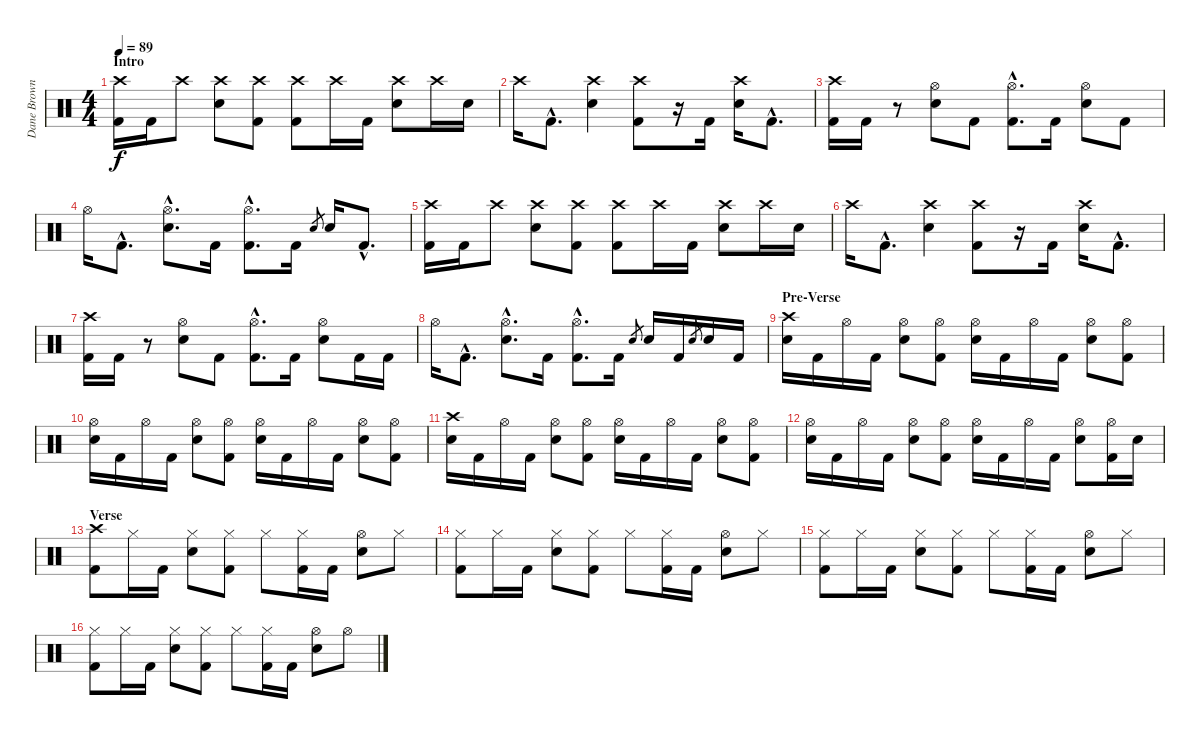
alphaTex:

\track ("Dane Brown (drums)" "Dane Brown") {instrument percussion}
\staff {score}
\articulation defaults
\ts (4 4)
\section ("" "Intro")
\tempo 89
\clef neutral
\ks c
("Crash high (hit)" "Kick (hit) 2").16{dy f} "Kick (hit) 2".16 "Crash high (hit)".8 ("Crash high (hit)" "Electric Snare (hit)").8 ("Crash high (hit)" "Kick (hit) 2").8 ("Crash high (hit)" "Kick (hit) 2").8 "Crash high (hit)".16 "Kick (hit) 2".16 ("Crash high (hit)" "Electric Snare (hit)").8 "Crash high (hit)".16 "Electric Snare (hit)".16 |
"Crash high (hit)".16 "Kick (hit) 2"{hac}.8{d} ("Crash high (hit)" "Electric Snare (hit)").4 ("Crash high (hit)" "Kick (hit) 2").8 r.16 "Kick (hit) 2".16 ("Crash high (hit)" "Electric Snare (hit)").16 "Kick (hit) 2"{hac}.8{d} |
("Crash high (hit)" "Kick (hit) 2").16 "Kick (hit) 2".16 r.8 ("Hi-Hat (open)" "Electric Snare (hit)").8 "Kick (hit) 2".8 ("Hi-Hat (open)"{hac} "Kick (hit) 2"{hac}).8{d} "Kick (hit) 2".16 ("Hi-Hat (open)" "Electric Snare (hit)").8 "Kick (hit) 2".8 |
"Hi-Hat (open)".16 "Kick (hit) 2"{hac}.8{d} ("Hi-Hat (open)"{hac} "Electric Snare (hit)"{hac}).8{d} "Kick (hit) 2".16 ("Hi-Hat (open)"{hac} "Kick (hit) 2"{hac}).8{d} "Kick (hit) 2".16 "Electric Snare (hit)".8{gr} "Electric Snare (hit)".16 "Kick (hit) 2"{hac}.8{d} |
("Crash high (hit)" "Kick (hit) 2").16 "Kick (hit) 2".16 "Crash high (hit)".8 ("Crash high (hit)" "Electric Snare (hit)").8 ("Crash high (hit)" "Kick (hit) 2").8 ("Crash high (hit)" "Kick (hit) 2").8 "Crash high (hit)".16 "Kick (hit) 2".16 ("Crash high (hit)" "Electric Snare (hit)").8 "Crash high (hit)".16 "Electric Snare (hit)".16 |
"Crash high (hit)".16 "Kick (hit) 2"{hac}.8{d} ("Crash high (hit)" "Electric Snare (hit)").4 ("Crash high (hit)" "Kick (hit) 2").8 r.16 "Kick (hit) 2".16 ("Crash high (hit)" "Electric Snare (hit)").16 "Kick (hit) 2"{hac}.8{d} |
("Crash high (hit)" "Kick (hit) 2").16 "Kick (hit) 2".16 r.8 ("Hi-Hat (open)" "Electric Snare (hit)").8 "Kick (hit) 2".8 ("Hi-Hat (open)"{hac} "Kick (hit) 2"{hac}).8{d} "Kick (hit) 2".16 ("Hi-Hat (open)" "Electric Snare (hit)").8 "Kick (hit) 2".16 "Kick (hit) 2".16 |
"Hi-Hat (open)".16 "Kick (hit) 2"{hac}.8{d} ("Hi-Hat (open)"{hac} "Electric Snare (hit)"{hac}).8{d} "Kick (hit) 2".16 ("Hi-Hat (open)"{hac} "Kick (hit) 2"{hac}).8{d} "Kick (hit) 2".16 "Electric Snare (hit)".8{gr} "Electric Snare (hit)".16 "Kick (hit) 2".16 "Electric Snare (hit)".8{gr} "Electric Snare (hit)".16 "Kick (hit) 2".16 |
\section ("" "Pre-Verse")
("Crash high (hit)" "Electric Snare (hit)").16 "Kick (hit) 2".16 "Hi-Hat (open)".16 "Kick (hit) 2".16 ("Hi-Hat (open)" "Electric Snare (hit)").8 ("Hi-Hat (open)" "Kick (hit) 2").8 ("Hi-Hat (open)" "Electric Snare (hit)").16 "Kick (hit) 2".16 "Hi-Hat (open)".16 "Kick (hit) 2".16 ("Hi-Hat (open)" "Electric Snare (hit)").8 ("Hi-Hat (open)" "Kick (hit) 2").8 |
("Hi-Hat (open)" "Electric Snare (hit)").16 "Kick (hit) 2".16 "Hi-Hat (open)".16 "Kick (hit) 2".16 ("Hi-Hat (open)" "Electric Snare (hit)").8 ("Hi-Hat (open)" "Kick (hit) 2").8 ("Hi-Hat (open)" "Electric Snare (hit)").16 "Kick (hit) 2".16 "Hi-Hat (open)".16 "Kick (hit) 2".16 ("Hi-Hat (open)" "Electric Snare (hit)").8 ("Hi-Hat (open)" "Kick (hit) 2").8 |
("Crash high (hit)" "Electric Snare (hit)").16 "Kick (hit) 2".16 "Hi-Hat (open)".16 "Kick (hit) 2".16 ("Hi-Hat (open)" "Electric Snare (hit)").8 ("Hi-Hat (open)" "Kick (hit) 2").8 ("Hi-Hat (open)" "Electric Snare (hit)").16 "Kick (hit) 2".16 "Hi-Hat (open)".16 "Kick (hit) 2".16 ("Hi-Hat (open)" "Electric Snare (hit)").8 ("Hi-Hat (open)" "Kick (hit) 2").8 |
("Hi-Hat (open)" "Electric Snare (hit)").16 "Kick (hit) 2".16 "Hi-Hat (open)".16 "Kick (hit) 2".16 ("Hi-Hat (open)" "Electric Snare (hit)").8 ("Hi-Hat (open)" "Kick (hit) 2").8 ("Hi-Hat (open)" "Electric Snare (hit)").16 "Kick (hit) 2".16 "Hi-Hat (open)".16 "Kick (hit) 2".16 ("Hi-Hat (open)" "Electric Snare (hit)").8 ("Hi-Hat (open)" "Kick (hit) 2").16 "Electric Snare (hit)".16 |
\section ("" "Verse")
("Crash high (hit)" "Kick (hit) 2").8 "Hi-Hat (closed)".16 "Kick (hit) 2".16 ("Hi-Hat (closed)" "Electric Snare (hit)").8 ("Hi-Hat (closed)" "Kick (hit) 2").8 "Hi-Hat (closed)".8 ("Hi-Hat (closed)" "Kick (hit) 2").16 "Kick (hit) 2".16 ("Hi-Hat (open)" "Electric Snare (hit)").8 "Hi-Hat (closed)".8 |
("Hi-Hat (closed)" "Kick (hit) 2").8 "Hi-Hat (closed)".16 "Kick (hit) 2".16 ("Hi-Hat (closed)" "Electric Snare (hit)").8 ("Hi-Hat (closed)" "Kick (hit) 2").8 "Hi-Hat (closed)".8 ("Hi-Hat (closed)" "Kick (hit) 2").16 "Kick (hit) 2".16 ("Hi-Hat (open)" "Electric Snare (hit)").8 "Hi-Hat (closed)".8 |
("Hi-Hat (closed)" "Kick (hit) 2").8 "Hi-Hat (closed)".16 "Kick (hit) 2".16 ("Hi-Hat (closed)" "Electric Snare (hit)").8 ("Hi-Hat (closed)" "Kick (hit) 2").8 "Hi-Hat (closed)".8 ("Hi-Hat (closed)" "Kick (hit) 2").16 "Kick (hit) 2".16 ("Hi-Hat (open)" "Electric Snare (hit)").8 "Hi-Hat (closed)".8 |
("Hi-Hat (closed)" "Kick (hit) 2").8 "Hi-Hat (closed)".16 "Kick (hit) 2".16 ("Hi-Hat (closed)" "Electric Snare (hit)").8 ("Hi-Hat (closed)" "Kick (hit) 2").8 "Hi-Hat (closed)".8 ("Hi-Hat (closed)" "Kick (hit) 2").16 "Kick (hit) 2".16 ("Hi-Hat (open)" "Electric Snare (hit)").8 "Hi-Hat (open)".8
